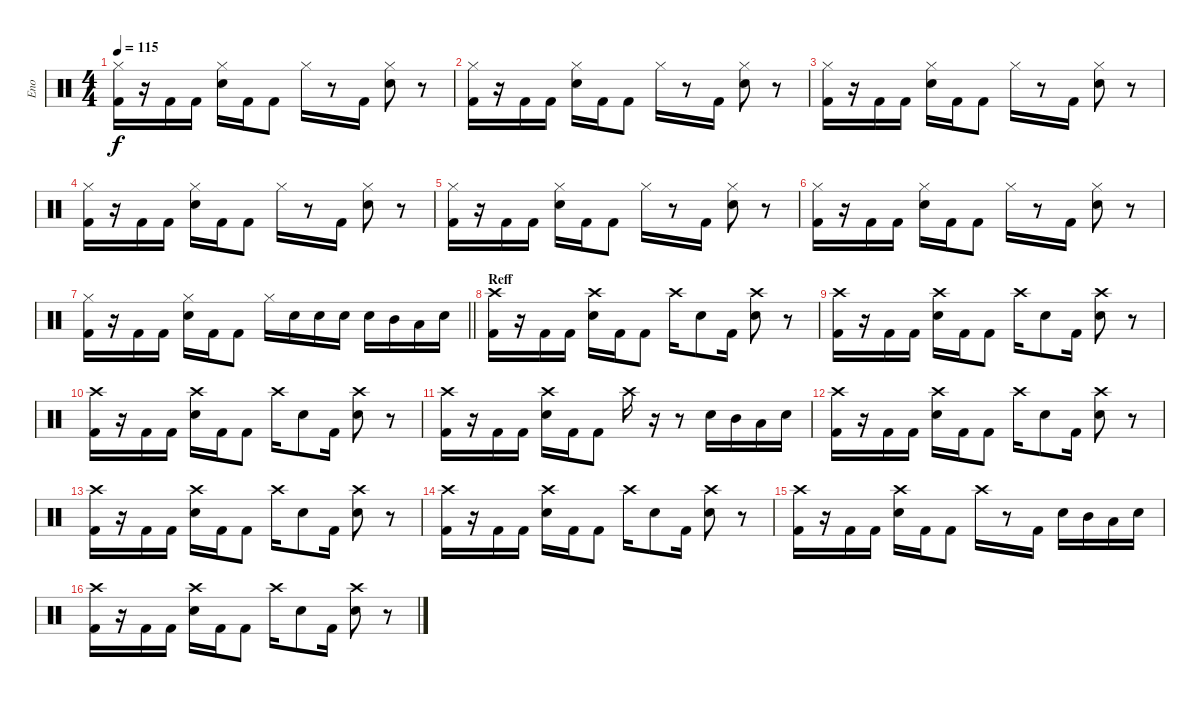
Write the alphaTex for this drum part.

\track ("Eno" "Eno") {instrument percussion}
\staff {score}
\articulation defaults
\ts (4 4)
\tempo 115
\clef neutral
\ks c
("Kick (hit) 2" "Hi-Hat (closed)").16{dy f} r.16 "Kick (hit) 2".16 "Kick (hit) 2".16 ("Electric Snare (hit)" "Hi-Hat (closed)").16 "Kick (hit) 2".16 "Kick (hit) 2".8 "Hi-Hat (closed)".16 r.8 "Kick (hit) 2".16 ("Electric Snare (hit)" "Hi-Hat (closed)").8 r.8 |
("Kick (hit) 2" "Hi-Hat (closed)").16 r.16 "Kick (hit) 2".16 "Kick (hit) 2".16 ("Electric Snare (hit)" "Hi-Hat (closed)").16 "Kick (hit) 2".16 "Kick (hit) 2".8 "Hi-Hat (closed)".16 r.8 "Kick (hit) 2".16 ("Electric Snare (hit)" "Hi-Hat (closed)").8 r.8 |
("Kick (hit) 2" "Hi-Hat (closed)").16 r.16 "Kick (hit) 2".16 "Kick (hit) 2".16 ("Electric Snare (hit)" "Hi-Hat (closed)").16 "Kick (hit) 2".16 "Kick (hit) 2".8 "Hi-Hat (closed)".16 r.8 "Kick (hit) 2".16 ("Electric Snare (hit)" "Hi-Hat (closed)").8 r.8 |
("Kick (hit) 2" "Hi-Hat (closed)").16 r.16 "Kick (hit) 2".16 "Kick (hit) 2".16 ("Electric Snare (hit)" "Hi-Hat (closed)").16 "Kick (hit) 2".16 "Kick (hit) 2".8 "Hi-Hat (closed)".16 r.8 "Kick (hit) 2".16 ("Electric Snare (hit)" "Hi-Hat (closed)").8 r.8 |
("Kick (hit) 2" "Hi-Hat (closed)").16 r.16 "Kick (hit) 2".16 "Kick (hit) 2".16 ("Electric Snare (hit)" "Hi-Hat (closed)").16 "Kick (hit) 2".16 "Kick (hit) 2".8 "Hi-Hat (closed)".16 r.8 "Kick (hit) 2".16 ("Electric Snare (hit)" "Hi-Hat (closed)").8 r.8 |
("Kick (hit) 2" "Hi-Hat (closed)").16 r.16 "Kick (hit) 2".16 "Kick (hit) 2".16 ("Electric Snare (hit)" "Hi-Hat (closed)").16 "Kick (hit) 2".16 "Kick (hit) 2".8 "Hi-Hat (closed)".16 r.8 "Kick (hit) 2".16 ("Electric Snare (hit)" "Hi-Hat (closed)").8 r.8 |
\barLineRight lightlight
("Kick (hit) 2" "Hi-Hat (closed)").16 r.16 "Kick (hit) 2".16 "Kick (hit) 2".16 ("Electric Snare (hit)" "Hi-Hat (closed)").16 "Kick (hit) 2".16 "Kick (hit) 2".8 "Hi-Hat (closed)".16 "Electric Snare (hit)".16 "Electric Snare (hit)".16 "Electric Snare (hit)".16 "Electric Snare (hit)".16 "Mid Tom (hit)".16 "Low Tom (hit)".16 "Electric Snare (hit)".16 |
\section ("" "Reff")
("Kick (hit) 2" "Crash high (hit)").16 r.16 "Kick (hit) 2".16 "Kick (hit) 2".16 ("Electric Snare (hit)" "Crash high (hit)").16 "Kick (hit) 2".16 "Kick (hit) 2".8 "Crash high (hit)".16 "Electric Snare (hit)".8 "Kick (hit) 2".16 ("Electric Snare (hit)" "Crash high (hit)").8 r.8 |
("Kick (hit) 2" "Crash high (hit)").16 r.16 "Kick (hit) 2".16 "Kick (hit) 2".16 ("Electric Snare (hit)" "Crash high (hit)").16 "Kick (hit) 2".16 "Kick (hit) 2".8 "Crash high (hit)".16 "Electric Snare (hit)".8 "Kick (hit) 2".16 ("Electric Snare (hit)" "Crash high (hit)").8 r.8 |
("Kick (hit) 2" "Crash high (hit)").16 r.16 "Kick (hit) 2".16 "Kick (hit) 2".16 ("Electric Snare (hit)" "Crash high (hit)").16 "Kick (hit) 2".16 "Kick (hit) 2".8 "Crash high (hit)".16 "Electric Snare (hit)".8 "Kick (hit) 2".16 ("Electric Snare (hit)" "Crash high (hit)").8 r.8 |
("Kick (hit) 2" "Crash high (hit)").16 r.16 "Kick (hit) 2".16 "Kick (hit) 2".16 ("Electric Snare (hit)" "Crash high (hit)").16 "Kick (hit) 2".16 "Kick (hit) 2".8 "Crash high (hit)".16 r.16 r.8 "Electric Snare (hit)".16 "Mid Tom (hit)".16 "Low Tom (hit)".16 "Electric Snare (hit)".16 |
("Kick (hit) 2" "Crash high (hit)").16 r.16 "Kick (hit) 2".16 "Kick (hit) 2".16 ("Electric Snare (hit)" "Crash high (hit)").16 "Kick (hit) 2".16 "Kick (hit) 2".8 "Crash high (hit)".16 "Electric Snare (hit)".8 "Kick (hit) 2".16 ("Electric Snare (hit)" "Crash high (hit)").8 r.8 |
("Kick (hit) 2" "Crash high (hit)").16 r.16 "Kick (hit) 2".16 "Kick (hit) 2".16 ("Electric Snare (hit)" "Crash high (hit)").16 "Kick (hit) 2".16 "Kick (hit) 2".8 "Crash high (hit)".16 "Electric Snare (hit)".8 "Kick (hit) 2".16 ("Electric Snare (hit)" "Crash high (hit)").8 r.8 |
("Kick (hit) 2" "Crash high (hit)").16 r.16 "Kick (hit) 2".16 "Kick (hit) 2".16 ("Electric Snare (hit)" "Crash high (hit)").16 "Kick (hit) 2".16 "Kick (hit) 2".8 "Crash high (hit)".16 "Electric Snare (hit)".8 "Kick (hit) 2".16 ("Electric Snare (hit)" "Crash high (hit)").8 r.8 |
("Kick (hit) 2" "Crash high (hit)").16 r.16 "Kick (hit) 2".16 "Kick (hit) 2".16 ("Electric Snare (hit)" "Crash high (hit)").16 "Kick (hit) 2".16 "Kick (hit) 2".8 "Crash high (hit)".16 r.8 "Kick (hit) 2".16 "Electric Snare (hit)".16 "Mid Tom (hit)".16 "Low Tom (hit)".16 "Electric Snare (hit)".16 |
("Kick (hit) 2" "Crash high (hit)").16 r.16 "Kick (hit) 2".16 "Kick (hit) 2".16 ("Electric Snare (hit)" "Crash high (hit)").16 "Kick (hit) 2".16 "Kick (hit) 2".8 "Crash high (hit)".16 "Electric Snare (hit)".8 "Kick (hit) 2".16 ("Electric Snare (hit)" "Crash high (hit)").8 r.8
